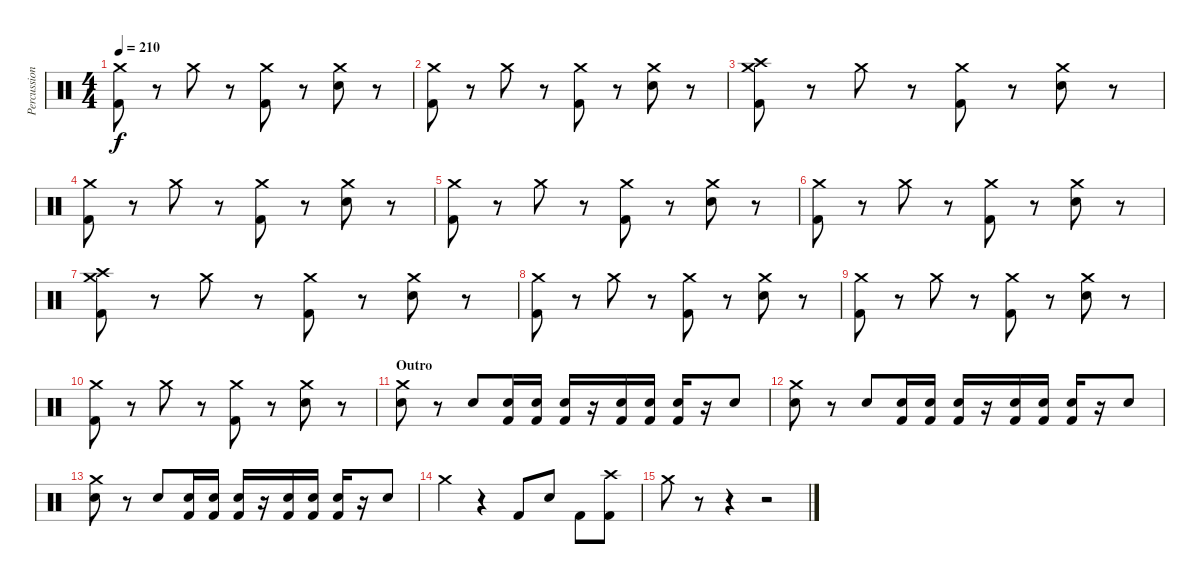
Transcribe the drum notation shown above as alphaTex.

\track ("Percussion" "Percussion") {instrument percussion}
\staff {score}
\articulation defaults
\ts (4 4)
\tempo 210
\clef neutral
\ks c
("Crash medium (hit)" "Kick (hit) 2").8{dy f} r.8 "Crash medium (hit)".8 r.8 ("Crash medium (hit)" "Kick (hit) 2").8 r.8 ("Crash medium (hit)" "Electric Snare (hit)").8 r.8 |
("Crash medium (hit)" "Kick (hit) 2").8 r.8 "Crash medium (hit)".8 r.8 ("Crash medium (hit)" "Kick (hit) 2").8 r.8 ("Crash medium (hit)" "Electric Snare (hit)").8 r.8 |
("Crash high (hit)" "Crash medium (hit)" "Kick (hit) 2").8 r.8 "Crash medium (hit)".8 r.8 ("Crash medium (hit)" "Kick (hit) 2").8 r.8 ("Crash medium (hit)" "Electric Snare (hit)").8 r.8 |
("Crash medium (hit)" "Kick (hit) 2").8 r.8 "Crash medium (hit)".8 r.8 ("Crash medium (hit)" "Kick (hit) 2").8 r.8 ("Crash medium (hit)" "Electric Snare (hit)").8 r.8 |
("Crash medium (hit)" "Kick (hit) 2").8 r.8 "Crash medium (hit)".8 r.8 ("Crash medium (hit)" "Kick (hit) 2").8 r.8 ("Crash medium (hit)" "Electric Snare (hit)").8 r.8 |
("Crash medium (hit)" "Kick (hit) 2").8 r.8 "Crash medium (hit)".8 r.8 ("Crash medium (hit)" "Kick (hit) 2").8 r.8 ("Crash medium (hit)" "Electric Snare (hit)").8 r.8 |
("Crash high (hit)" "Crash medium (hit)" "Kick (hit) 2").8 r.8 "Crash medium (hit)".8 r.8 ("Crash medium (hit)" "Kick (hit) 2").8 r.8 ("Crash medium (hit)" "Electric Snare (hit)").8 r.8 |
("Crash medium (hit)" "Kick (hit) 2").8 r.8 "Crash medium (hit)".8 r.8 ("Crash medium (hit)" "Kick (hit) 2").8 r.8 ("Crash medium (hit)" "Electric Snare (hit)").8 r.8 |
("Crash medium (hit)" "Kick (hit) 2").8 r.8 "Crash medium (hit)".8 r.8 ("Crash medium (hit)" "Kick (hit) 2").8 r.8 ("Crash medium (hit)" "Electric Snare (hit)").8 r.8 |
("Crash medium (hit)" "Kick (hit) 2").8 r.8 "Crash medium (hit)".8 r.8 ("Crash medium (hit)" "Kick (hit) 2").8 r.8 ("Crash medium (hit)" "Electric Snare (hit)").8 r.8 |
\section ("" "Outro")
("Crash medium (hit)" "Electric Snare (hit)").8 r.8 "Electric Snare (hit)".8 ("Electric Snare (hit)" "Kick (hit) 2").16 ("Electric Snare (hit)" "Kick (hit) 2").16 ("Electric Snare (hit)" "Kick (hit) 2").16 r.16 ("Electric Snare (hit)" "Kick (hit) 2").16 ("Electric Snare (hit)" "Kick (hit) 2").16 ("Electric Snare (hit)" "Kick (hit) 2").16 r.16 "Electric Snare (hit)".8 |
("Crash medium (hit)" "Electric Snare (hit)").8 r.8 "Electric Snare (hit)".8 ("Electric Snare (hit)" "Kick (hit) 2").16 ("Electric Snare (hit)" "Kick (hit) 2").16 ("Electric Snare (hit)" "Kick (hit) 2").16 r.16 ("Electric Snare (hit)" "Kick (hit) 2").16 ("Electric Snare (hit)" "Kick (hit) 2").16 ("Electric Snare (hit)" "Kick (hit) 2").16 r.16 "Electric Snare (hit)".8 |
("Crash medium (hit)" "Electric Snare (hit)").8 r.8 "Electric Snare (hit)".8 ("Electric Snare (hit)" "Kick (hit) 2").16 ("Electric Snare (hit)" "Kick (hit) 2").16 ("Electric Snare (hit)" "Kick (hit) 2").16 r.16 ("Electric Snare (hit)" "Kick (hit) 2").16 ("Electric Snare (hit)" "Kick (hit) 2").16 ("Electric Snare (hit)" "Kick (hit) 2").16 r.16 "Electric Snare (hit)".8 |
"Crash medium (hit)".4 r.4 "Kick (hit) 2".8 "Electric Snare (hit)".8 "Kick (hit) 2".8 ("Crash high (hit)" "Kick (hit) 2").8 |
"Crash medium (hit)".8 r.8 r.4 r.2
